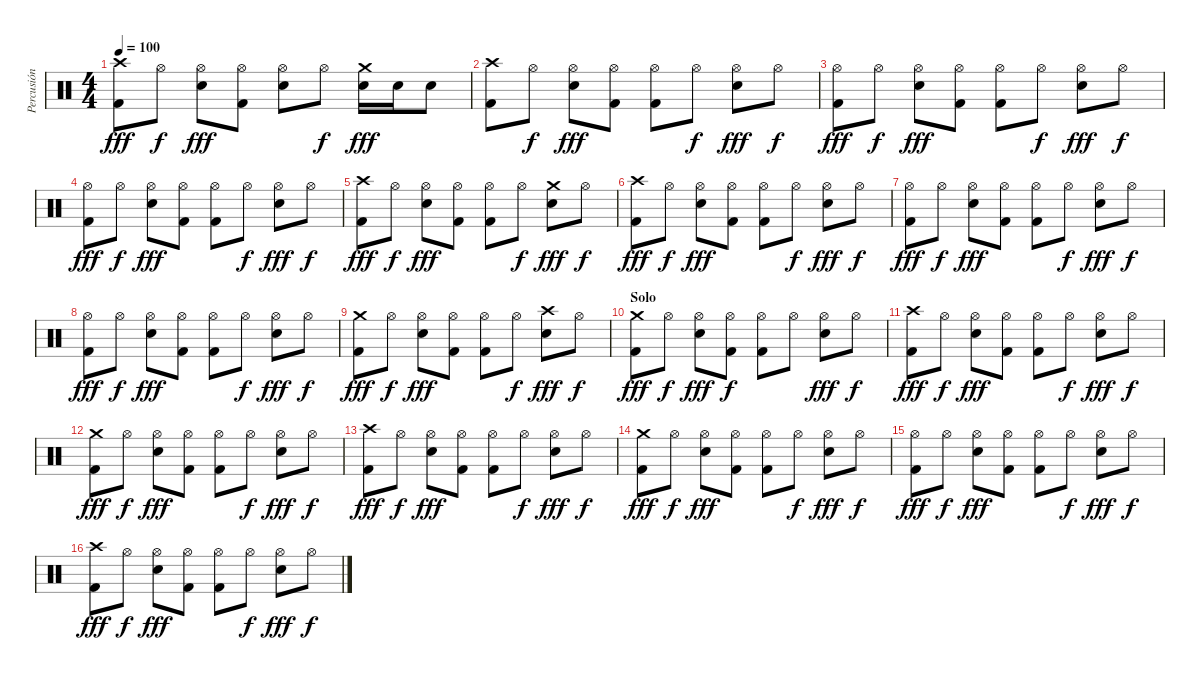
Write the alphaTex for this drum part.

\track ("Percusión" "Percusión") {instrument percussion}
\staff {score}
\articulation defaults
\ts (4 4)
\tempo 100
\clef neutral
\ks c
("Crash high (hit)" "Kick (hit) 2").8{dy fff} "Hi-Hat (open)".8{dy f} ("Hi-Hat (open)" "Snare (hit) 2").8{dy fff} ("Hi-Hat (open)" "Kick (hit) 2").8 ("Hi-Hat (open)" "Snare (hit) 2").8 "Hi-Hat (open)".8{dy f} ("Crash medium (hit)" "Snare (hit) 2").16{dy fff} "Snare (hit) 2".16 "Snare (hit) 2".8 |
("Crash high (hit)" "Kick (hit) 2").8 "Hi-Hat (open)".8{dy f} ("Hi-Hat (open)" "Snare (hit) 2").8{dy fff} ("Hi-Hat (open)" "Kick (hit) 2").8 ("Hi-Hat (open)" "Kick (hit) 2").8 "Hi-Hat (open)".8{dy f} ("Hi-Hat (open)" "Snare (hit) 2").8{dy fff} "Hi-Hat (open)".8{dy f} |
("Hi-Hat (open)" "Kick (hit) 2").8{dy fff} "Hi-Hat (open)".8{dy f} ("Hi-Hat (open)" "Snare (hit) 2").8{dy fff} ("Hi-Hat (open)" "Kick (hit) 2").8 ("Hi-Hat (open)" "Kick (hit) 2").8 "Hi-Hat (open)".8{dy f} ("Hi-Hat (open)" "Snare (hit) 2").8{dy fff} "Hi-Hat (open)".8{dy f} |
("Hi-Hat (open)" "Kick (hit) 2").8{dy fff} "Hi-Hat (open)".8{dy f} ("Hi-Hat (open)" "Snare (hit) 2").8{dy fff} ("Hi-Hat (open)" "Kick (hit) 2").8 ("Hi-Hat (open)" "Kick (hit) 2").8 "Hi-Hat (open)".8{dy f} ("Hi-Hat (open)" "Snare (hit) 2").8{dy fff} "Hi-Hat (open)".8{dy f} |
("Crash high (hit)" "Kick (hit) 2").8{dy fff} "Hi-Hat (open)".8{dy f} ("Hi-Hat (open)" "Snare (hit) 2").8{dy fff} ("Hi-Hat (open)" "Kick (hit) 2").8 ("Hi-Hat (open)" "Kick (hit) 2").8 "Hi-Hat (open)".8{dy f} ("Crash medium (hit)" "Snare (hit) 2").8{dy fff} "Hi-Hat (open)".8{dy f} |
("Crash high (hit)" "Kick (hit) 2").8{dy fff} "Hi-Hat (open)".8{dy f} ("Hi-Hat (open)" "Snare (hit) 2").8{dy fff} ("Hi-Hat (open)" "Kick (hit) 2").8 ("Hi-Hat (open)" "Kick (hit) 2").8 "Hi-Hat (open)".8{dy f} ("Hi-Hat (open)" "Snare (hit) 2").8{dy fff} "Hi-Hat (open)".8{dy f} |
("Hi-Hat (open)" "Kick (hit) 2").8{dy fff} "Hi-Hat (open)".8{dy f} ("Hi-Hat (open)" "Snare (hit) 2").8{dy fff} ("Hi-Hat (open)" "Kick (hit) 2").8 ("Hi-Hat (open)" "Kick (hit) 2").8 "Hi-Hat (open)".8{dy f} ("Hi-Hat (open)" "Snare (hit) 2").8{dy fff} "Hi-Hat (open)".8{dy f} |
("Hi-Hat (open)" "Kick (hit) 2").8{dy fff} "Hi-Hat (open)".8{dy f} ("Hi-Hat (open)" "Snare (hit) 2").8{dy fff} ("Hi-Hat (open)" "Kick (hit) 2").8 ("Hi-Hat (open)" "Kick (hit) 2").8 "Hi-Hat (open)".8{dy f} ("Hi-Hat (open)" "Snare (hit) 2").8{dy fff} "Hi-Hat (open)".8{dy f} |
("Crash medium (hit)" "Kick (hit) 2").8{dy fff} "Hi-Hat (open)".8{dy f} ("Hi-Hat (open)" "Snare (hit) 2").8{dy fff} ("Hi-Hat (open)" "Kick (hit) 2").8 ("Hi-Hat (open)" "Kick (hit) 2").8 "Hi-Hat (open)".8{dy f} ("Crash high (hit)" "Snare (hit) 2").8{dy fff} "Hi-Hat (open)".8{dy f} |
\section ("" "Solo")
("Crash medium (hit)" "Kick (hit) 2").8{dy fff} "Hi-Hat (open)".8{dy f} ("Hi-Hat (open)" "Snare (hit) 2").8{dy fff} ("Hi-Hat (open)" "Kick (hit) 2").8{dy f} ("Hi-Hat (open)" "Kick (hit) 2").8 "Hi-Hat (open)".8 ("Hi-Hat (open)" "Snare (hit) 2").8{dy fff} "Hi-Hat (open)".8{dy f} |
("Crash high (hit)" "Kick (hit) 2").8{dy fff} "Hi-Hat (open)".8{dy f} ("Hi-Hat (open)" "Snare (hit) 2").8{dy fff} ("Hi-Hat (open)" "Kick (hit) 2").8 ("Hi-Hat (open)" "Kick (hit) 2").8 "Hi-Hat (open)".8{dy f} ("Hi-Hat (open)" "Snare (hit) 2").8{dy fff} "Hi-Hat (open)".8{dy f} |
("Crash medium (hit)" "Kick (hit) 2").8{dy fff} "Hi-Hat (open)".8{dy f} ("Hi-Hat (open)" "Snare (hit) 2").8{dy fff} ("Hi-Hat (open)" "Kick (hit) 2").8 ("Hi-Hat (open)" "Kick (hit) 2").8 "Hi-Hat (open)".8{dy f} ("Hi-Hat (open)" "Snare (hit) 2").8{dy fff} "Hi-Hat (open)".8{dy f} |
("Crash high (hit)" "Kick (hit) 2").8{dy fff} "Hi-Hat (open)".8{dy f} ("Hi-Hat (open)" "Snare (hit) 2").8{dy fff} ("Hi-Hat (open)" "Kick (hit) 2").8 ("Hi-Hat (open)" "Kick (hit) 2").8 "Hi-Hat (open)".8{dy f} ("Hi-Hat (open)" "Snare (hit) 2").8{dy fff} "Hi-Hat (open)".8{dy f} |
("Crash medium (hit)" "Kick (hit) 2").8{dy fff} "Hi-Hat (open)".8{dy f} ("Hi-Hat (open)" "Snare (hit) 2").8{dy fff} ("Hi-Hat (open)" "Kick (hit) 2").8 ("Hi-Hat (open)" "Kick (hit) 2").8 "Hi-Hat (open)".8{dy f} ("Hi-Hat (open)" "Snare (hit) 2").8{dy fff} "Hi-Hat (open)".8{dy f} |
("Hi-Hat (open)" "Kick (hit) 2").8{dy fff} "Hi-Hat (open)".8{dy f} ("Hi-Hat (open)" "Snare (hit) 2").8{dy fff} ("Hi-Hat (open)" "Kick (hit) 2").8 ("Hi-Hat (open)" "Kick (hit) 2").8 "Hi-Hat (open)".8{dy f} ("Hi-Hat (open)" "Snare (hit) 2").8{dy fff} "Hi-Hat (open)".8{dy f} |
("Crash high (hit)" "Kick (hit) 2").8{dy fff} "Hi-Hat (open)".8{dy f} ("Hi-Hat (open)" "Snare (hit) 2").8{dy fff} ("Hi-Hat (open)" "Kick (hit) 2").8 ("Hi-Hat (open)" "Kick (hit) 2").8 "Hi-Hat (open)".8{dy f} ("Hi-Hat (open)" "Snare (hit) 2").8{dy fff} "Hi-Hat (open)".8{dy f}
